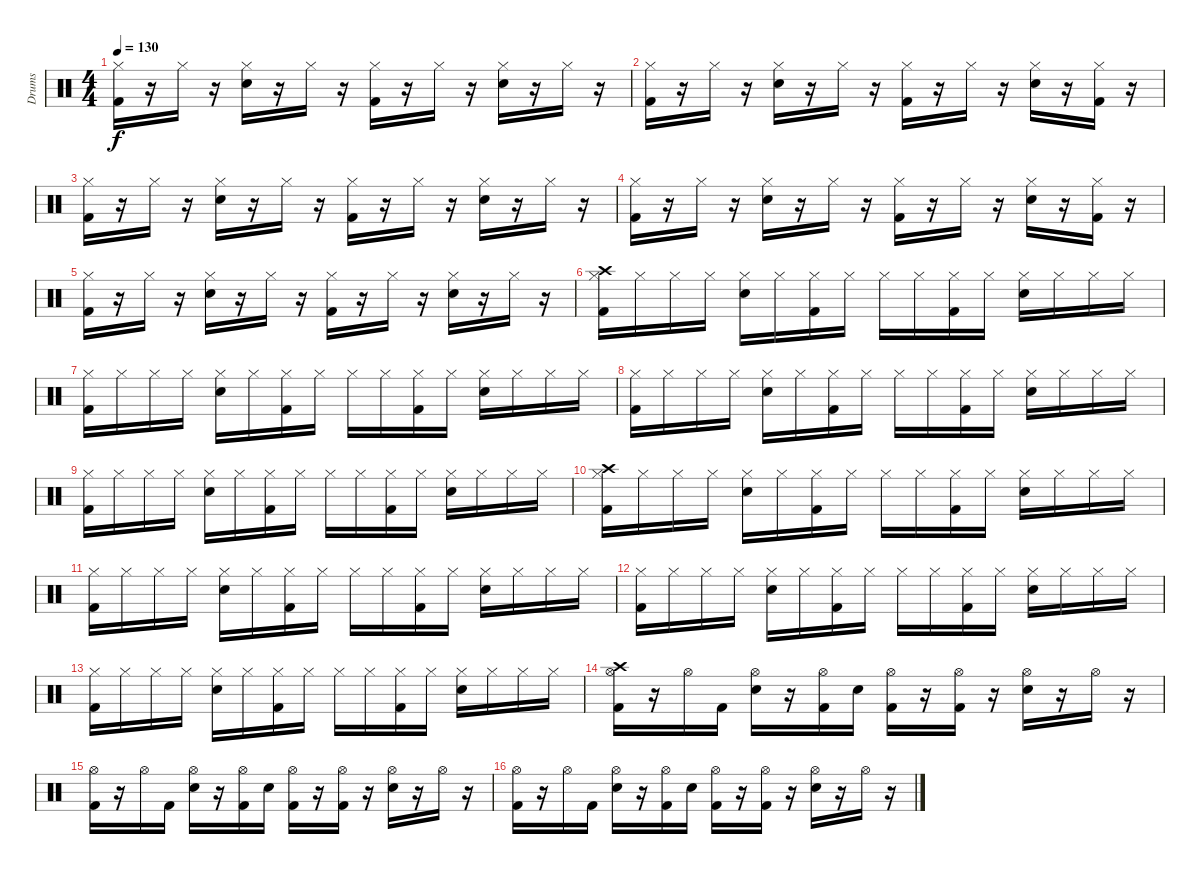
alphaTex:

\track ("Drums" "Drums") {instrument percussion}
\staff {score}
\articulation defaults
\ts (4 4)
\tempo 130
\clef neutral
\ks c
("Kick (hit) 2" "Hi-Hat (closed)").16{dy f} r.16 "Hi-Hat (closed)".16 r.16 ("Electric Snare (hit)" "Hi-Hat (closed)").16 r.16 "Hi-Hat (closed)".16 r.16 ("Kick (hit) 2" "Hi-Hat (closed)").16 r.16 "Hi-Hat (closed)".16 r.16 ("Electric Snare (hit)" "Hi-Hat (closed)").16 r.16 "Hi-Hat (closed)".16 r.16 |
("Kick (hit) 2" "Hi-Hat (closed)").16 r.16 "Hi-Hat (closed)".16 r.16 ("Electric Snare (hit)" "Hi-Hat (closed)").16 r.16 "Hi-Hat (closed)".16 r.16 ("Kick (hit) 2" "Hi-Hat (closed)").16 r.16 "Hi-Hat (closed)".16 r.16 ("Electric Snare (hit)" "Hi-Hat (closed)").16 r.16 ("Kick (hit) 2" "Hi-Hat (closed)").16 r.16 |
("Kick (hit) 2" "Hi-Hat (closed)").16 r.16 "Hi-Hat (closed)".16 r.16 ("Electric Snare (hit)" "Hi-Hat (closed)").16 r.16 "Hi-Hat (closed)".16 r.16 ("Kick (hit) 2" "Hi-Hat (closed)").16 r.16 "Hi-Hat (closed)".16 r.16 ("Electric Snare (hit)" "Hi-Hat (closed)").16 r.16 "Hi-Hat (closed)".16 r.16 |
("Kick (hit) 2" "Hi-Hat (closed)").16 r.16 "Hi-Hat (closed)".16 r.16 ("Electric Snare (hit)" "Hi-Hat (closed)").16 r.16 "Hi-Hat (closed)".16 r.16 ("Kick (hit) 2" "Hi-Hat (closed)").16 r.16 "Hi-Hat (closed)".16 r.16 ("Electric Snare (hit)" "Hi-Hat (closed)").16 r.16 ("Kick (hit) 2" "Hi-Hat (closed)").16 r.16 |
("Kick (hit) 2" "Hi-Hat (closed)").16 r.16 "Hi-Hat (closed)".16 r.16 ("Electric Snare (hit)" "Hi-Hat (closed)").16 r.16 "Hi-Hat (closed)".16 r.16 ("Kick (hit) 2" "Hi-Hat (closed)").16 r.16 "Hi-Hat (closed)".16 r.16 ("Electric Snare (hit)" "Hi-Hat (closed)").16 r.16 "Hi-Hat (closed)".16 r.16 |
("Kick (hit) 2" "Crash high (hit)" "Hi-Hat (closed)").16 "Hi-Hat (closed)".16 "Hi-Hat (closed)".16 "Hi-Hat (closed)".16 ("Electric Snare (hit)" "Hi-Hat (closed)").16 "Hi-Hat (closed)".16 ("Kick (hit) 2" "Hi-Hat (closed)").16 "Hi-Hat (closed)".16 "Hi-Hat (closed)".16 "Hi-Hat (closed)".16 ("Kick (hit) 2" "Hi-Hat (closed)").16 "Hi-Hat (closed)".16 ("Electric Snare (hit)" "Hi-Hat (closed)").16 "Hi-Hat (closed)".16 "Hi-Hat (closed)".16 "Hi-Hat (closed)".16 |
("Kick (hit) 2" "Hi-Hat (closed)").16 "Hi-Hat (closed)".16 "Hi-Hat (closed)".16 "Hi-Hat (closed)".16 ("Electric Snare (hit)" "Hi-Hat (closed)").16 "Hi-Hat (closed)".16 ("Kick (hit) 2" "Hi-Hat (closed)").16 "Hi-Hat (closed)".16 "Hi-Hat (closed)".16 "Hi-Hat (closed)".16 ("Kick (hit) 2" "Hi-Hat (closed)").16 "Hi-Hat (closed)".16 ("Electric Snare (hit)" "Hi-Hat (closed)").16 "Hi-Hat (closed)".16 "Hi-Hat (closed)".16 "Hi-Hat (closed)".16 |
("Kick (hit) 2" "Hi-Hat (closed)").16 "Hi-Hat (closed)".16 "Hi-Hat (closed)".16 "Hi-Hat (closed)".16 ("Electric Snare (hit)" "Hi-Hat (closed)").16 "Hi-Hat (closed)".16 ("Kick (hit) 2" "Hi-Hat (closed)").16 "Hi-Hat (closed)".16 "Hi-Hat (closed)".16 "Hi-Hat (closed)".16 ("Kick (hit) 2" "Hi-Hat (closed)").16 "Hi-Hat (closed)".16 ("Electric Snare (hit)" "Hi-Hat (closed)").16 "Hi-Hat (closed)".16 "Hi-Hat (closed)".16 "Hi-Hat (closed)".16 |
("Kick (hit) 2" "Hi-Hat (closed)").16 "Hi-Hat (closed)".16 "Hi-Hat (closed)".16 "Hi-Hat (closed)".16 ("Electric Snare (hit)" "Hi-Hat (closed)").16 "Hi-Hat (closed)".16 ("Kick (hit) 2" "Hi-Hat (closed)").16 "Hi-Hat (closed)".16 "Hi-Hat (closed)".16 "Hi-Hat (closed)".16 ("Kick (hit) 2" "Hi-Hat (closed)").16 "Hi-Hat (closed)".16 ("Electric Snare (hit)" "Hi-Hat (closed)").16 "Hi-Hat (closed)".16 "Hi-Hat (closed)".16 "Hi-Hat (closed)".16 |
("Kick (hit) 2" "Crash high (hit)" "Hi-Hat (closed)").16 "Hi-Hat (closed)".16 "Hi-Hat (closed)".16 "Hi-Hat (closed)".16 ("Electric Snare (hit)" "Hi-Hat (closed)").16 "Hi-Hat (closed)".16 ("Kick (hit) 2" "Hi-Hat (closed)").16 "Hi-Hat (closed)".16 "Hi-Hat (closed)".16 "Hi-Hat (closed)".16 ("Kick (hit) 2" "Hi-Hat (closed)").16 "Hi-Hat (closed)".16 ("Electric Snare (hit)" "Hi-Hat (closed)").16 "Hi-Hat (closed)".16 "Hi-Hat (closed)".16 "Hi-Hat (closed)".16 |
("Kick (hit) 2" "Hi-Hat (closed)").16 "Hi-Hat (closed)".16 "Hi-Hat (closed)".16 "Hi-Hat (closed)".16 ("Electric Snare (hit)" "Hi-Hat (closed)").16 "Hi-Hat (closed)".16 ("Kick (hit) 2" "Hi-Hat (closed)").16 "Hi-Hat (closed)".16 "Hi-Hat (closed)".16 "Hi-Hat (closed)".16 ("Kick (hit) 2" "Hi-Hat (closed)").16 "Hi-Hat (closed)".16 ("Electric Snare (hit)" "Hi-Hat (closed)").16 "Hi-Hat (closed)".16 "Hi-Hat (closed)".16 "Hi-Hat (closed)".16 |
("Kick (hit) 2" "Hi-Hat (closed)").16 "Hi-Hat (closed)".16 "Hi-Hat (closed)".16 "Hi-Hat (closed)".16 ("Electric Snare (hit)" "Hi-Hat (closed)").16 "Hi-Hat (closed)".16 ("Kick (hit) 2" "Hi-Hat (closed)").16 "Hi-Hat (closed)".16 "Hi-Hat (closed)".16 "Hi-Hat (closed)".16 ("Kick (hit) 2" "Hi-Hat (closed)").16 "Hi-Hat (closed)".16 ("Electric Snare (hit)" "Hi-Hat (closed)").16 "Hi-Hat (closed)".16 "Hi-Hat (closed)".16 "Hi-Hat (closed)".16 |
("Kick (hit) 2" "Hi-Hat (closed)").16 "Hi-Hat (closed)".16 "Hi-Hat (closed)".16 "Hi-Hat (closed)".16 ("Electric Snare (hit)" "Hi-Hat (closed)").16 "Hi-Hat (closed)".16 ("Kick (hit) 2" "Hi-Hat (closed)").16 "Hi-Hat (closed)".16 "Hi-Hat (closed)".16 "Hi-Hat (closed)".16 ("Kick (hit) 2" "Hi-Hat (closed)").16 "Hi-Hat (closed)".16 ("Electric Snare (hit)" "Hi-Hat (closed)").16 "Hi-Hat (closed)".16 "Hi-Hat (closed)".16 "Hi-Hat (closed)".16 |
("Kick (hit) 2" "Crash high (hit)" "Hi-Hat (open)").16 r.16 "Hi-Hat (open)".16 "Kick (hit) 2".16 ("Electric Snare (hit)" "Hi-Hat (open)").16 r.16 ("Kick (hit) 2" "Hi-Hat (open)").16 "Electric Snare (hit)".16 ("Kick (hit) 2" "Hi-Hat (open)").16 r.16 ("Kick (hit) 2" "Hi-Hat (open)").16 r.16 ("Electric Snare (hit)" "Hi-Hat (open)").16 r.16 "Hi-Hat (open)".16 r.16 |
("Kick (hit) 2" "Hi-Hat (open)").16 r.16 "Hi-Hat (open)".16 "Kick (hit) 2".16 ("Electric Snare (hit)" "Hi-Hat (open)").16 r.16 ("Kick (hit) 2" "Hi-Hat (open)").16 "Electric Snare (hit)".16 ("Kick (hit) 2" "Hi-Hat (open)").16 r.16 ("Kick (hit) 2" "Hi-Hat (open)").16 r.16 ("Electric Snare (hit)" "Hi-Hat (open)").16 r.16 "Hi-Hat (open)".16 r.16 |
("Kick (hit) 2" "Hi-Hat (open)").16 r.16 "Hi-Hat (open)".16 "Kick (hit) 2".16 ("Electric Snare (hit)" "Hi-Hat (open)").16 r.16 ("Kick (hit) 2" "Hi-Hat (open)").16 "Electric Snare (hit)".16 ("Kick (hit) 2" "Hi-Hat (open)").16 r.16 ("Kick (hit) 2" "Hi-Hat (open)").16 r.16 ("Electric Snare (hit)" "Hi-Hat (open)").16 r.16 "Hi-Hat (open)".16 r.16
